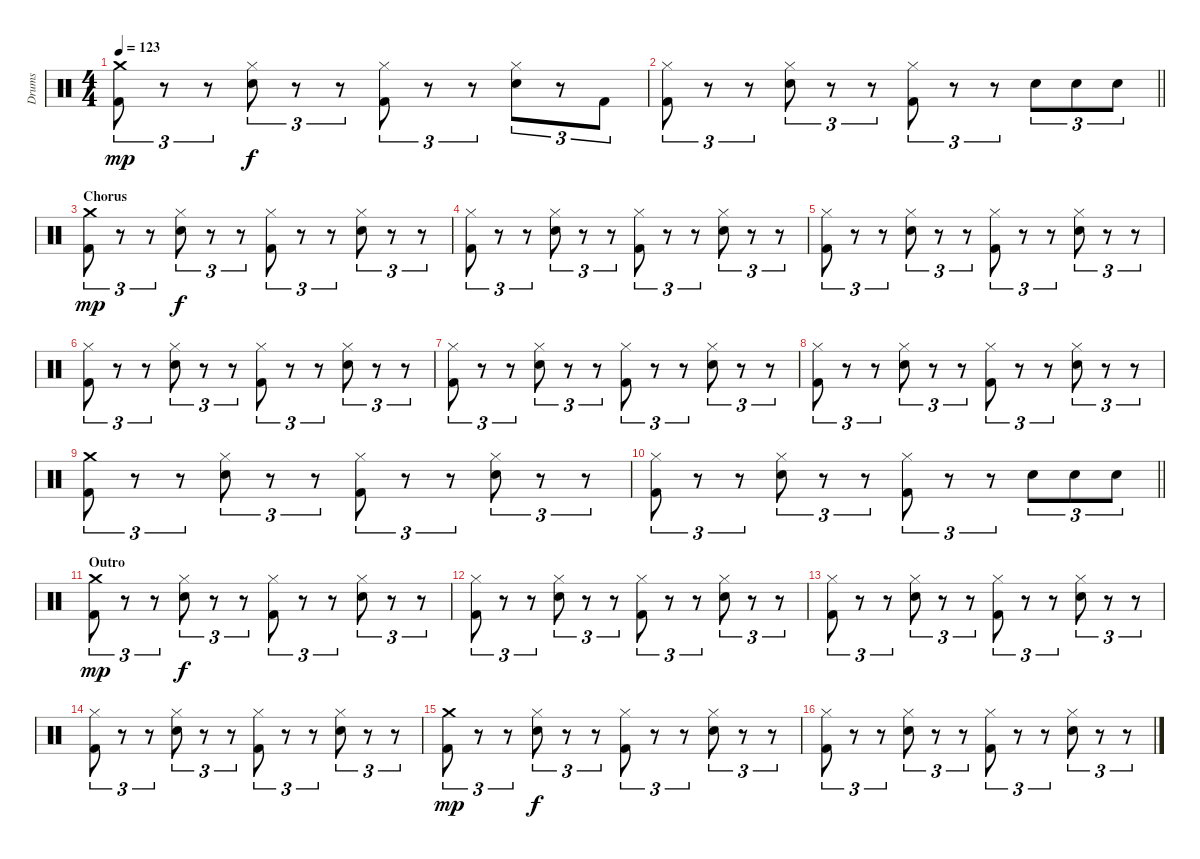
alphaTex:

\track ("Drums" "Drums") {instrument percussion}
\staff {score}
\articulation defaults
\ts (4 4)
\tempo 123
\clef neutral
\ks c
("Crash medium (hit)" "Kick (hit) 2").8{tu (3 2) dy mp} r.8{tu (3 2)} r.8{tu (3 2)} ("Hi-Hat (closed)" "Snare (hit) 2").8{tu (3 2) dy f} r.8{tu (3 2)} r.8{tu (3 2)} ("Hi-Hat (closed)" "Kick (hit) 2").8{tu (3 2)} r.8{tu (3 2)} r.8{tu (3 2)} ("Hi-Hat (closed)" "Snare (hit) 2").8{tu (3 2)} r.8{tu (3 2)} "Kick (hit) 2".8{tu (3 2)} |
\barLineRight lightlight
("Hi-Hat (closed)" "Kick (hit) 2").8{tu (3 2)} r.8{tu (3 2)} r.8{tu (3 2)} ("Hi-Hat (closed)" "Snare (hit) 2").8{tu (3 2)} r.8{tu (3 2)} r.8{tu (3 2)} ("Hi-Hat (closed)" "Kick (hit) 2").8{tu (3 2)} r.8{tu (3 2)} r.8{tu (3 2)} "Snare (hit) 2".8{tu (3 2)} "Snare (hit) 2".8{tu (3 2)} "Snare (hit) 2".8{tu (3 2)} |
\section ("" "Chorus")
("Crash medium (hit)" "Kick (hit) 2").8{tu (3 2) dy mp} r.8{tu (3 2)} r.8{tu (3 2)} ("Hi-Hat (closed)" "Snare (hit) 2").8{tu (3 2) dy f} r.8{tu (3 2)} r.8{tu (3 2)} ("Hi-Hat (closed)" "Kick (hit) 2").8{tu (3 2)} r.8{tu (3 2)} r.8{tu (3 2)} ("Hi-Hat (closed)" "Snare (hit) 2").8{tu (3 2)} r.8{tu (3 2)} r.8{tu (3 2)} |
("Hi-Hat (closed)" "Kick (hit) 2").8{tu (3 2)} r.8{tu (3 2)} r.8{tu (3 2)} ("Hi-Hat (closed)" "Snare (hit) 2").8{tu (3 2)} r.8{tu (3 2)} r.8{tu (3 2)} ("Hi-Hat (closed)" "Kick (hit) 2").8{tu (3 2)} r.8{tu (3 2)} r.8{tu (3 2)} ("Hi-Hat (closed)" "Snare (hit) 2").8{tu (3 2)} r.8{tu (3 2)} r.8{tu (3 2)} |
("Hi-Hat (closed)" "Kick (hit) 2").8{tu (3 2)} r.8{tu (3 2)} r.8{tu (3 2)} ("Hi-Hat (closed)" "Snare (hit) 2").8{tu (3 2)} r.8{tu (3 2)} r.8{tu (3 2)} ("Hi-Hat (closed)" "Kick (hit) 2").8{tu (3 2)} r.8{tu (3 2)} r.8{tu (3 2)} ("Hi-Hat (closed)" "Snare (hit) 2").8{tu (3 2)} r.8{tu (3 2)} r.8{tu (3 2)} |
("Hi-Hat (closed)" "Kick (hit) 2").8{tu (3 2)} r.8{tu (3 2)} r.8{tu (3 2)} ("Hi-Hat (closed)" "Snare (hit) 2").8{tu (3 2)} r.8{tu (3 2)} r.8{tu (3 2)} ("Hi-Hat (closed)" "Kick (hit) 2").8{tu (3 2)} r.8{tu (3 2)} r.8{tu (3 2)} ("Hi-Hat (closed)" "Snare (hit) 2").8{tu (3 2)} r.8{tu (3 2)} r.8{tu (3 2)} |
("Hi-Hat (closed)" "Kick (hit) 2").8{tu (3 2)} r.8{tu (3 2)} r.8{tu (3 2)} ("Hi-Hat (closed)" "Snare (hit) 2").8{tu (3 2)} r.8{tu (3 2)} r.8{tu (3 2)} ("Hi-Hat (closed)" "Kick (hit) 2").8{tu (3 2)} r.8{tu (3 2)} r.8{tu (3 2)} ("Hi-Hat (closed)" "Snare (hit) 2").8{tu (3 2)} r.8{tu (3 2)} r.8{tu (3 2)} |
("Hi-Hat (closed)" "Kick (hit) 2").8{tu (3 2)} r.8{tu (3 2)} r.8{tu (3 2)} ("Hi-Hat (closed)" "Snare (hit) 2").8{tu (3 2)} r.8{tu (3 2)} r.8{tu (3 2)} ("Hi-Hat (closed)" "Kick (hit) 2").8{tu (3 2)} r.8{tu (3 2)} r.8{tu (3 2)} ("Hi-Hat (closed)" "Snare (hit) 2").8{tu (3 2)} r.8{tu (3 2)} r.8{tu (3 2)} |
("Crash medium (hit)" "Kick (hit) 2").8{tu (3 2)} r.8{tu (3 2)} r.8{tu (3 2)} ("Hi-Hat (closed)" "Snare (hit) 2").8{tu (3 2)} r.8{tu (3 2)} r.8{tu (3 2)} ("Hi-Hat (closed)" "Kick (hit) 2").8{tu (3 2)} r.8{tu (3 2)} r.8{tu (3 2)} ("Hi-Hat (closed)" "Snare (hit) 2").8{tu (3 2)} r.8{tu (3 2)} r.8{tu (3 2)} |
\barLineRight lightlight
("Hi-Hat (closed)" "Kick (hit) 2").8{tu (3 2)} r.8{tu (3 2)} r.8{tu (3 2)} ("Hi-Hat (closed)" "Snare (hit) 2").8{tu (3 2)} r.8{tu (3 2)} r.8{tu (3 2)} ("Hi-Hat (closed)" "Kick (hit) 2").8{tu (3 2)} r.8{tu (3 2)} r.8{tu (3 2)} "Snare (hit) 2".8{tu (3 2)} "Snare (hit) 2".8{tu (3 2)} "Snare (hit) 2".8{tu (3 2)} |
\section ("" "Outro")
("Crash medium (hit)" "Kick (hit) 2").8{tu (3 2) dy mp} r.8{tu (3 2)} r.8{tu (3 2)} ("Hi-Hat (closed)" "Snare (hit) 2").8{tu (3 2) dy f} r.8{tu (3 2)} r.8{tu (3 2)} ("Hi-Hat (closed)" "Kick (hit) 2").8{tu (3 2)} r.8{tu (3 2)} r.8{tu (3 2)} ("Hi-Hat (closed)" "Snare (hit) 2").8{tu (3 2)} r.8{tu (3 2)} r.8{tu (3 2)} |
("Hi-Hat (closed)" "Kick (hit) 2").8{tu (3 2)} r.8{tu (3 2)} r.8{tu (3 2)} ("Hi-Hat (closed)" "Snare (hit) 2").8{tu (3 2)} r.8{tu (3 2)} r.8{tu (3 2)} ("Hi-Hat (closed)" "Kick (hit) 2").8{tu (3 2)} r.8{tu (3 2)} r.8{tu (3 2)} ("Hi-Hat (closed)" "Snare (hit) 2").8{tu (3 2)} r.8{tu (3 2)} r.8{tu (3 2)} |
("Hi-Hat (closed)" "Kick (hit) 2").8{tu (3 2)} r.8{tu (3 2)} r.8{tu (3 2)} ("Hi-Hat (closed)" "Snare (hit) 2").8{tu (3 2)} r.8{tu (3 2)} r.8{tu (3 2)} ("Hi-Hat (closed)" "Kick (hit) 2").8{tu (3 2)} r.8{tu (3 2)} r.8{tu (3 2)} ("Hi-Hat (closed)" "Snare (hit) 2").8{tu (3 2)} r.8{tu (3 2)} r.8{tu (3 2)} |
("Hi-Hat (closed)" "Kick (hit) 2").8{tu (3 2)} r.8{tu (3 2)} r.8{tu (3 2)} ("Hi-Hat (closed)" "Snare (hit) 2").8{tu (3 2)} r.8{tu (3 2)} r.8{tu (3 2)} ("Hi-Hat (closed)" "Kick (hit) 2").8{tu (3 2)} r.8{tu (3 2)} r.8{tu (3 2)} ("Hi-Hat (closed)" "Snare (hit) 2").8{tu (3 2)} r.8{tu (3 2)} r.8{tu (3 2)} |
("Crash medium (hit)" "Kick (hit) 2").8{tu (3 2) dy mp} r.8{tu (3 2)} r.8{tu (3 2)} ("Hi-Hat (closed)" "Snare (hit) 2").8{tu (3 2) dy f} r.8{tu (3 2)} r.8{tu (3 2)} ("Hi-Hat (closed)" "Kick (hit) 2").8{tu (3 2)} r.8{tu (3 2)} r.8{tu (3 2)} ("Hi-Hat (closed)" "Snare (hit) 2").8{tu (3 2)} r.8{tu (3 2)} r.8{tu (3 2)} |
("Hi-Hat (closed)" "Kick (hit) 2").8{tu (3 2)} r.8{tu (3 2)} r.8{tu (3 2)} ("Hi-Hat (closed)" "Snare (hit) 2").8{tu (3 2)} r.8{tu (3 2)} r.8{tu (3 2)} ("Hi-Hat (closed)" "Kick (hit) 2").8{tu (3 2)} r.8{tu (3 2)} r.8{tu (3 2)} ("Hi-Hat (closed)" "Snare (hit) 2").8{tu (3 2)} r.8{tu (3 2)} r.8{tu (3 2)}
